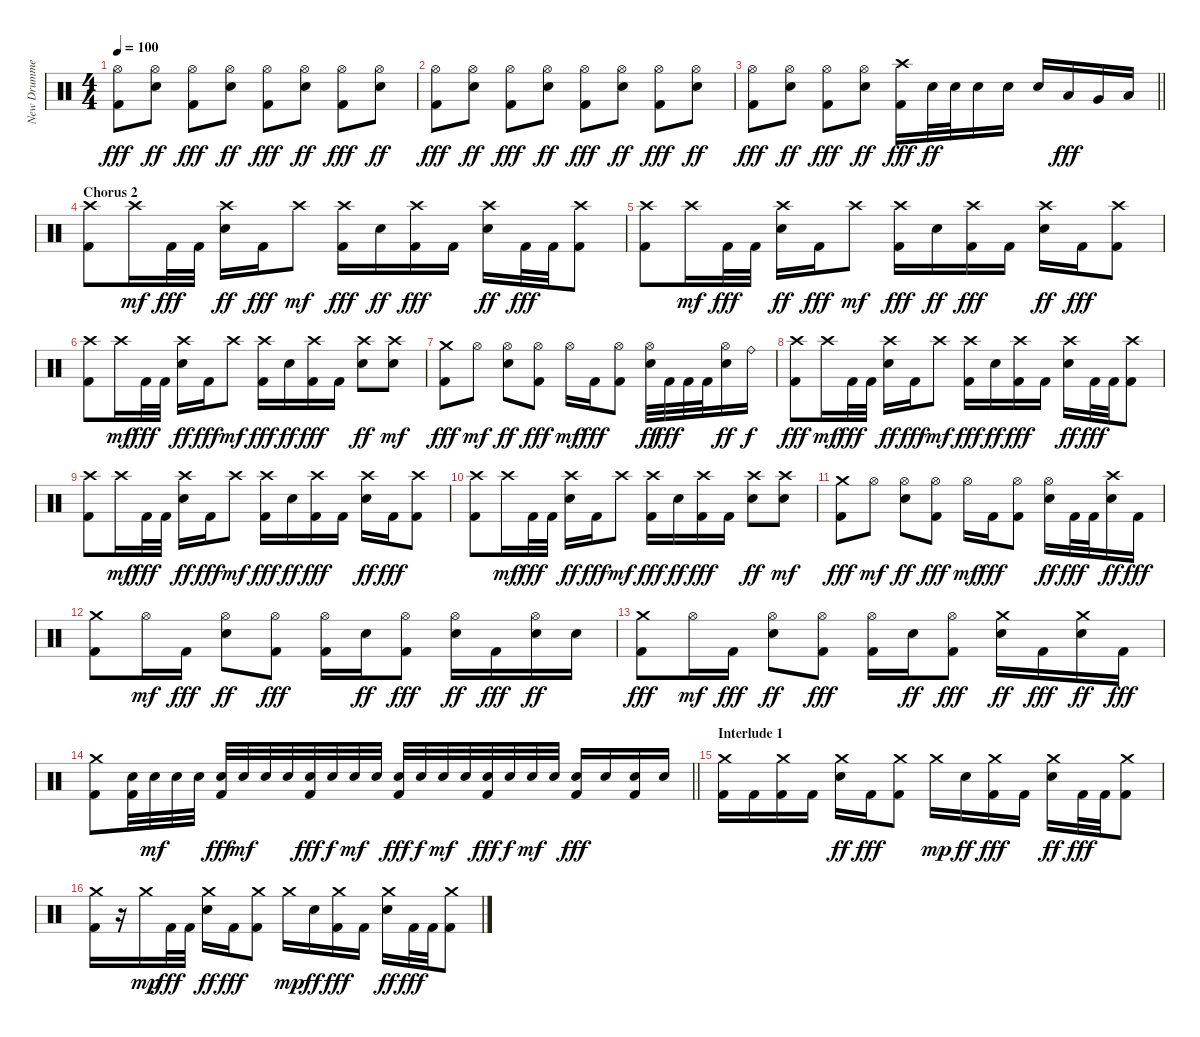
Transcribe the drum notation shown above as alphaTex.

\track ("New Drummer" "New Drumme") {instrument percussion}
\staff {score}
\articulation defaults
\ts (4 4)
\tempo 100
\clef neutral
\ks c
("Hi-Hat (open)" "Kick (hit) 2").8{dy fff} ("Hi-Hat (open)" "Electric Snare (hit)").8{dy ff} ("Hi-Hat (open)" "Kick (hit) 2").8{dy fff} ("Hi-Hat (open)" "Electric Snare (hit)").8{dy ff} ("Hi-Hat (open)" "Kick (hit) 2").8{dy fff} ("Hi-Hat (open)" "Electric Snare (hit)").8{dy ff} ("Hi-Hat (open)" "Kick (hit) 2").8{dy fff} ("Hi-Hat (open)" "Electric Snare (hit)").8{dy ff} |
("Hi-Hat (open)" "Kick (hit) 2").8{dy fff} ("Hi-Hat (open)" "Electric Snare (hit)").8{dy ff} ("Hi-Hat (open)" "Kick (hit) 2").8{dy fff} ("Hi-Hat (open)" "Electric Snare (hit)").8{dy ff} ("Hi-Hat (open)" "Kick (hit) 2").8{dy fff} ("Hi-Hat (open)" "Electric Snare (hit)").8{dy ff} ("Hi-Hat (open)" "Kick (hit) 2").8{dy fff} ("Hi-Hat (open)" "Electric Snare (hit)").8{dy ff} |
\barLineRight lightlight
("Hi-Hat (open)" "Kick (hit) 2").8{dy fff} ("Hi-Hat (open)" "Electric Snare (hit)").8{dy ff} ("Hi-Hat (open)" "Kick (hit) 2").8{dy fff} ("Hi-Hat (open)" "Electric Snare (hit)").8{dy ff} ("Crash high (hit)" "Kick (hit) 2").16{dy fff} "Electric Snare (hit)".32{dy ff} "Electric Snare (hit)".32 "Electric Snare (hit)".16 "Electric Snare (hit)".16 "Electric Snare (hit)".16 "Low Tom (hit)".16{dy fff} "Very Low Tom (hit)".16 "Low Floor Tom (hit)".16 |
\section ("" "Chorus 2")
("Crash high (hit)" "Kick (hit) 2").8 "Crash high (hit)".16{dy mf} "Kick (hit) 2".32{dy fff} "Kick (hit) 2".32 ("Crash high (hit)" "Electric Snare (hit)").16{dy ff} "Kick (hit) 2".16{dy fff} "Crash high (hit)".8{dy mf} ("Crash high (hit)" "Kick (hit) 2").16{dy fff} "Electric Snare (hit)".16{dy ff} ("Crash high (hit)" "Kick (hit) 2").16{dy fff} "Kick (hit) 2".16 ("Crash high (hit)" "Electric Snare (hit)").16{dy ff} "Kick (hit) 2".32{dy fff} "Kick (hit) 2".32 ("Crash high (hit)" "Kick (hit) 2").8 |
("Crash high (hit)" "Kick (hit) 2").8 "Crash high (hit)".16{dy mf} "Kick (hit) 2".32{dy fff} "Kick (hit) 2".32 ("Crash high (hit)" "Electric Snare (hit)").16{dy ff} "Kick (hit) 2".16{dy fff} "Crash high (hit)".8{dy mf} ("Crash high (hit)" "Kick (hit) 2").16{dy fff} "Electric Snare (hit)".16{dy ff} ("Crash high (hit)" "Kick (hit) 2").16{dy fff} "Kick (hit) 2".16 ("Crash high (hit)" "Electric Snare (hit)").16{dy ff} "Kick (hit) 2".16{dy fff} ("Crash high (hit)" "Kick (hit) 2").8 |
("Crash high (hit)" "Kick (hit) 2").8 "Crash high (hit)".16{dy mf} "Kick (hit) 2".32{dy fff} "Kick (hit) 2".32 ("Crash high (hit)" "Electric Snare (hit)").16{dy ff} "Kick (hit) 2".16{dy fff} "Crash high (hit)".8{dy mf} ("Crash high (hit)" "Kick (hit) 2").16{dy fff} "Electric Snare (hit)".16{dy ff} ("Crash high (hit)" "Kick (hit) 2").16{dy fff} "Kick (hit) 2".16 ("Crash high (hit)" "Electric Snare (hit)").8{dy ff} ("Crash high (hit)" "Electric Snare (hit)").8{dy mf} |
("Crash medium (hit)" "Kick (hit) 2").8{dy fff} "Hi-Hat (open)".8{dy mf} ("Hi-Hat (open)" "Electric Snare (hit)").8{dy ff} ("Hi-Hat (open)" "Kick (hit) 2").8{dy fff} "Hi-Hat (open)".16{dy mf} "Kick (hit) 2".16{dy fff} ("Hi-Hat (open)" "Kick (hit) 2").8 ("Hi-Hat (open)" "Electric Snare (hit)").32{dy ff} "Kick (hit) 2".32{dy fff} "Kick (hit) 2".32 "Kick (hit) 2".32 ("Hi-Hat (open)" "Electric Snare (hit)").16{dy ff} "Ride (bell)".16{dy f} |
("Crash high (hit)" "Kick (hit) 2").8{dy fff} "Crash high (hit)".16{dy mf} "Kick (hit) 2".32{dy fff} "Kick (hit) 2".32 ("Crash high (hit)" "Electric Snare (hit)").16{dy ff} "Kick (hit) 2".16{dy fff} "Crash high (hit)".8{dy mf} ("Crash high (hit)" "Kick (hit) 2").16{dy fff} "Electric Snare (hit)".16{dy ff} ("Crash high (hit)" "Kick (hit) 2").16{dy fff} "Kick (hit) 2".16 ("Crash high (hit)" "Electric Snare (hit)").16{dy ff} "Kick (hit) 2".32{dy fff} "Kick (hit) 2".32 ("Crash high (hit)" "Kick (hit) 2").8 |
("Crash high (hit)" "Kick (hit) 2").8 "Crash high (hit)".16{dy mf} "Kick (hit) 2".32{dy fff} "Kick (hit) 2".32 ("Crash high (hit)" "Electric Snare (hit)").16{dy ff} "Kick (hit) 2".16{dy fff} "Crash high (hit)".8{dy mf} ("Crash high (hit)" "Kick (hit) 2").16{dy fff} "Electric Snare (hit)".16{dy ff} ("Crash high (hit)" "Kick (hit) 2").16{dy fff} "Kick (hit) 2".16 ("Crash high (hit)" "Electric Snare (hit)").16{dy ff} "Kick (hit) 2".16{dy fff} ("Crash high (hit)" "Kick (hit) 2").8 |
("Crash high (hit)" "Kick (hit) 2").8 "Crash high (hit)".16{dy mf} "Kick (hit) 2".32{dy fff} "Kick (hit) 2".32 ("Crash high (hit)" "Electric Snare (hit)").16{dy ff} "Kick (hit) 2".16{dy fff} "Crash high (hit)".8{dy mf} ("Crash high (hit)" "Kick (hit) 2").16{dy fff} "Electric Snare (hit)".16{dy ff} ("Crash high (hit)" "Kick (hit) 2").16{dy fff} "Kick (hit) 2".16 ("Crash high (hit)" "Electric Snare (hit)").8{dy ff} ("Crash high (hit)" "Electric Snare (hit)").8{dy mf} |
("Crash medium (hit)" "Kick (hit) 2").8{dy fff} "Hi-Hat (open)".8{dy mf} ("Hi-Hat (open)" "Electric Snare (hit)").8{dy ff} ("Hi-Hat (open)" "Kick (hit) 2").8{dy fff} "Hi-Hat (open)".16{dy mf} "Kick (hit) 2".16{dy fff} ("Hi-Hat (open)" "Kick (hit) 2").8 ("Hi-Hat (open)" "Electric Snare (hit)").16{dy ff} "Kick (hit) 2".32{dy fff} "Kick (hit) 2".32 ("Crash high (hit)" "Electric Snare (hit)").16{dy ff} "Kick (hit) 2".16{dy fff} |
("Crash medium (hit)" "Kick (hit) 2").8 "Hi-Hat (open)".16{dy mf} "Kick (hit) 2".16{dy fff} ("Hi-Hat (open)" "Electric Snare (hit)").8{dy ff} ("Hi-Hat (open)" "Kick (hit) 2").8{dy fff} ("Hi-Hat (open)" "Kick (hit) 2").16 "Electric Snare (hit)".16{dy ff} ("Hi-Hat (open)" "Kick (hit) 2").8{dy fff} ("Hi-Hat (open)" "Electric Snare (hit)").16{dy ff} "Kick (hit) 2".16{dy fff} ("Hi-Hat (open)" "Electric Snare (hit)").16{dy ff} "Electric Snare (hit)".16 |
("Crash medium (hit)" "Kick (hit) 2").8{dy fff} "Hi-Hat (open)".16{dy mf} "Kick (hit) 2".16{dy fff} ("Hi-Hat (open)" "Electric Snare (hit)").8{dy ff} ("Hi-Hat (open)" "Kick (hit) 2").8{dy fff} ("Hi-Hat (open)" "Kick (hit) 2").16 "Electric Snare (hit)".16{dy ff} ("Hi-Hat (open)" "Kick (hit) 2").8{dy fff} ("Crash medium (hit)" "Electric Snare (hit)").16{dy ff} "Kick (hit) 2".16{dy fff} ("Crash medium (hit)" "Electric Snare (hit)").16{dy ff} "Kick (hit) 2".16{dy fff} |
\barLineRight lightlight
("Crash medium (hit)" "Kick (hit) 2").8 ("Electric Snare (hit)" "Kick (hit) 2").32 "Electric Snare (hit)".32{dy mf} "Electric Snare (hit)".32 "Electric Snare (hit)".32 ("Electric Snare (hit)" "Kick (hit) 2").32{dy fff} "Electric Snare (hit)".32{dy mf} "Electric Snare (hit)".32 "Electric Snare (hit)".32 ("Electric Snare (hit)" "Kick (hit) 2").32{dy fff} "Electric Snare (hit)".32{dy f} "Electric Snare (hit)".32{dy mf} "Electric Snare (hit)".32 ("Electric Snare (hit)" "Kick (hit) 2").32{dy fff} "Electric Snare (hit)".32{dy f} "Electric Snare (hit)".32{dy mf} "Electric Snare (hit)".32 ("Electric Snare (hit)" "Kick (hit) 2").32{dy fff} "Electric Snare (hit)".32{dy f} "Electric Snare (hit)".32{dy mf} "Electric Snare (hit)".32 ("Electric Snare (hit)" "Kick (hit) 2").16{dy fff} "Electric Snare (hit)".16 ("Electric Snare (hit)" "Kick (hit) 2").16 "Electric Snare (hit)".16 |
\section ("" "Interlude 1")
("Crash medium (hit)" "Kick (hit) 2").16 "Kick (hit) 2".16 ("Crash medium (hit)" "Kick (hit) 2").16 "Kick (hit) 2".16 ("Crash medium (hit)" "Electric Snare (hit)").16{dy ff} "Kick (hit) 2".16{dy fff} ("Crash medium (hit)" "Kick (hit) 2").8 "Crash medium (hit)".16{dy mp} "Electric Snare (hit)".16{dy ff} ("Crash medium (hit)" "Kick (hit) 2").16{dy fff} "Kick (hit) 2".16 ("Crash medium (hit)" "Electric Snare (hit)").16{dy ff} "Kick (hit) 2".32{dy fff} "Kick (hit) 2".32 ("Crash medium (hit)" "Kick (hit) 2").8 |
("Crash medium (hit)" "Kick (hit) 2").16 r.16 "Crash medium (hit)".16{dy mp} "Kick (hit) 2".32{dy fff} "Kick (hit) 2".32 ("Crash medium (hit)" "Electric Snare (hit)").16{dy ff} "Kick (hit) 2".16{dy fff} ("Crash medium (hit)" "Kick (hit) 2").8 "Crash medium (hit)".16{dy mp} "Electric Snare (hit)".16{dy ff} ("Crash medium (hit)" "Kick (hit) 2").16{dy fff} "Kick (hit) 2".16 ("Crash medium (hit)" "Electric Snare (hit)").16{dy ff} "Kick (hit) 2".32{dy fff} "Kick (hit) 2".32 ("Crash medium (hit)" "Kick (hit) 2").8
